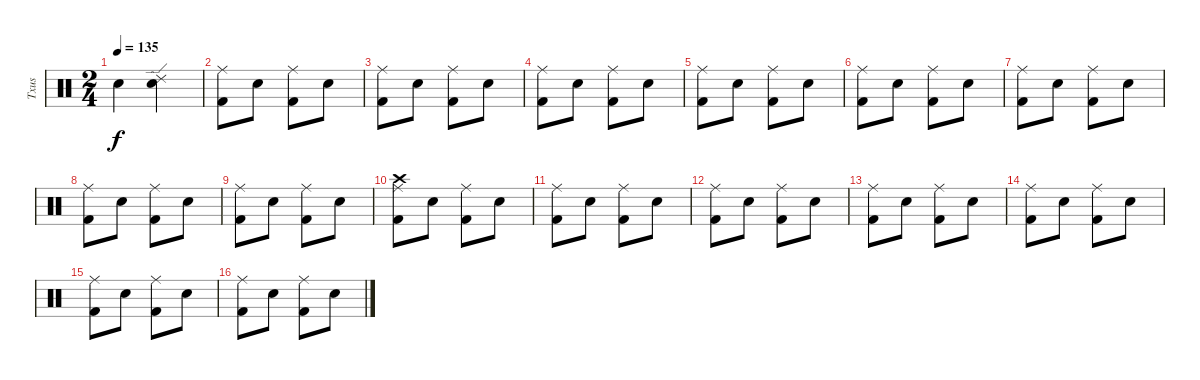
\track ("Txus" "Txus") {instrument percussion}
\staff {score}
\articulation defaults
\ts (2 4)
\tempo 135
\clef neutral
\ks c "Snare (hit) 2".4{dy f}
("Ride (edge) 2" "Snare (hit) 2").4 |
("Ride (middle)" "Kick (hit) 2").8 "Snare (hit) 2".8 ("Ride (middle)" "Kick (hit) 2").8 "Snare (hit) 2".8 |
("Ride (middle)" "Kick (hit) 2").8 "Snare (hit) 2".8 ("Ride (middle)" "Kick (hit) 2").8 "Snare (hit) 2".8 |
("Ride (middle)" "Kick (hit) 2").8 "Snare (hit) 2".8 ("Ride (middle)" "Kick (hit) 2").8 "Snare (hit) 2".8 |
("Ride (middle)" "Kick (hit) 2").8 "Snare (hit) 2".8 ("Ride (middle)" "Kick (hit) 2").8 "Snare (hit) 2".8 |
("Ride (middle)" "Kick (hit) 2").8 "Snare (hit) 2".8 ("Ride (middle)" "Kick (hit) 2").8 "Snare (hit) 2".8 |
("Ride (middle)" "Kick (hit) 2").8 "Snare (hit) 2".8 ("Ride (middle)" "Kick (hit) 2").8 "Snare (hit) 2".8 |
("Ride (middle)" "Kick (hit) 2").8 "Snare (hit) 2".8 ("Ride (middle)" "Kick (hit) 2").8 "Snare (hit) 2".8 |
("Ride (middle)" "Kick (hit) 2").8 "Snare (hit) 2".8 ("Ride (middle)" "Kick (hit) 2").8 "Snare (hit) 2".8 |
("Crash high (hit)" "Ride (middle)" "Kick (hit) 2").8 "Snare (hit) 2".8 ("Ride (middle)" "Kick (hit) 2").8 "Snare (hit) 2".8 |
("Ride (middle)" "Kick (hit) 2").8 "Snare (hit) 2".8 ("Ride (middle)" "Kick (hit) 2").8 "Snare (hit) 2".8 |
("Ride (middle)" "Kick (hit) 2").8 "Snare (hit) 2".8 ("Ride (middle)" "Kick (hit) 2").8 "Snare (hit) 2".8 |
("Ride (middle)" "Kick (hit) 2").8 "Snare (hit) 2".8 ("Ride (middle)" "Kick (hit) 2").8 "Snare (hit) 2".8 |
("Ride (middle)" "Kick (hit) 2").8 "Snare (hit) 2".8 ("Ride (middle)" "Kick (hit) 2").8 "Snare (hit) 2".8 |
("Ride (middle)" "Kick (hit) 2").8 "Snare (hit) 2".8 ("Ride (middle)" "Kick (hit) 2").8 "Snare (hit) 2".8 |
("Ride (middle)" "Kick (hit) 2").8 "Snare (hit) 2".8 ("Ride (middle)" "Kick (hit) 2").8 "Snare (hit) 2".8
